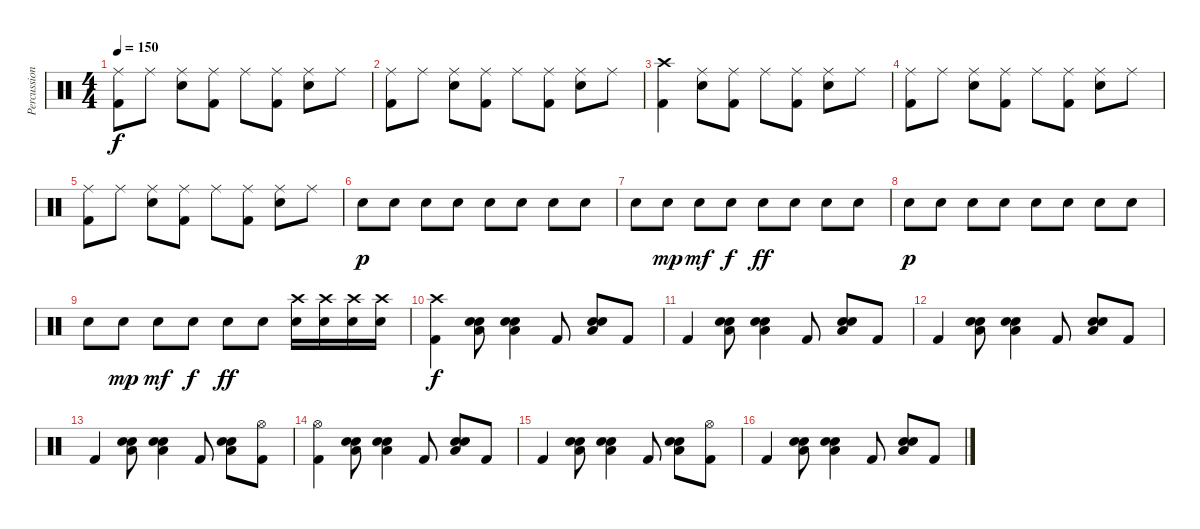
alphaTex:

\track ("Percussions" "Percussion") {instrument percussion}
\staff {score}
\articulation defaults
\ts (4 4)
\tempo 150
\clef neutral
\ks c
("Ride (middle)" "Kick (hit) 2").8{dy f} "Ride (middle)".8 ("Ride (middle)" "Snare (hit) 2").8 ("Ride (middle)" "Kick (hit) 2").8 "Ride (middle)".8 ("Ride (middle)" "Kick (hit) 2").8 ("Ride (middle)" "Snare (hit) 2").8 "Ride (middle)".8 |
("Ride (middle)" "Kick (hit) 2").8 "Ride (middle)".8 ("Ride (middle)" "Snare (hit) 2").8 ("Ride (middle)" "Kick (hit) 2").8 "Ride (middle)".8 ("Ride (middle)" "Kick (hit) 2").8 ("Ride (middle)" "Snare (hit) 2").8 "Ride (middle)".8 |
("Crash high (hit)" "Kick (hit) 2").4 ("Ride (middle)" "Snare (hit) 2").8 ("Ride (middle)" "Kick (hit) 2").8 "Ride (middle)".8 ("Ride (middle)" "Kick (hit) 2").8 ("Ride (middle)" "Snare (hit) 2").8 "Ride (middle)".8 |
("Ride (middle)" "Kick (hit) 2").8 "Ride (middle)".8 ("Ride (middle)" "Snare (hit) 2").8 ("Ride (middle)" "Kick (hit) 2").8 "Ride (middle)".8 ("Ride (middle)" "Kick (hit) 2").8 ("Ride (middle)" "Snare (hit) 2").8 "Ride (middle)".8 |
("Ride (middle)" "Kick (hit) 2").8 "Ride (middle)".8 ("Ride (middle)" "Snare (hit) 2").8 ("Ride (middle)" "Kick (hit) 2").8 "Ride (middle)".8 ("Ride (middle)" "Kick (hit) 2").8 ("Ride (middle)" "Snare (hit) 2").8 "Ride (middle)".8 |
"Snare (hit) 2".8{dy p} "Snare (hit) 2".8 "Snare (hit) 2".8 "Snare (hit) 2".8 "Snare (hit) 2".8 "Snare (hit) 2".8 "Snare (hit) 2".8 "Snare (hit) 2".8 |
"Snare (hit) 2".8 "Snare (hit) 2".8{dy mp} "Snare (hit) 2".8{dy mf} "Snare (hit) 2".8{dy f} "Snare (hit) 2".8{dy ff} "Snare (hit) 2".8 "Snare (hit) 2".8 "Snare (hit) 2".8 |
"Snare (hit) 2".8{dy p} "Snare (hit) 2".8 "Snare (hit) 2".8 "Snare (hit) 2".8 "Snare (hit) 2".8 "Snare (hit) 2".8 "Snare (hit) 2".8 "Snare (hit) 2".8 |
"Snare (hit) 2".8 "Snare (hit) 2".8{dy mp} "Snare (hit) 2".8{dy mf} "Snare (hit) 2".8{dy f} "Snare (hit) 2".8{dy ff} "Snare (hit) 2".8 ("Crash high (hit)" "Snare (hit) 2").16 ("Crash high (hit)" "Snare (hit) 2").16 ("Crash high (hit)" "Snare (hit) 2").16 ("Crash high (hit)" "Snare (hit) 2").16 |
("Crash high (hit)" "Kick (hit) 2").4{dy f} ("Hand Clap (hit)" "Snare (hit) 2" "Low Floor Tom (hit)").8 ("Hand Clap (hit)" "Snare (hit) 2" "Low Floor Tom (hit)").4 "Kick (hit) 2".8 ("Hand Clap (hit)" "Snare (hit) 2" "Low Floor Tom (hit)").8 "Kick (hit) 2".8 |
"Kick (hit) 2".4 ("Hand Clap (hit)" "Snare (hit) 2" "Low Floor Tom (hit)").8 ("Hand Clap (hit)" "Snare (hit) 2" "Low Floor Tom (hit)").4 "Kick (hit) 2".8 ("Hand Clap (hit)" "Snare (hit) 2" "Low Floor Tom (hit)").8 "Kick (hit) 2".8 |
"Kick (hit) 2".4 ("Hand Clap (hit)" "Snare (hit) 2" "Low Floor Tom (hit)").8 ("Hand Clap (hit)" "Snare (hit) 2" "Low Floor Tom (hit)").4 "Kick (hit) 2".8 ("Hand Clap (hit)" "Snare (hit) 2" "Low Floor Tom (hit)").8 "Kick (hit) 2".8 |
"Kick (hit) 2".4 ("Hand Clap (hit)" "Snare (hit) 2" "Low Floor Tom (hit)").8 ("Hand Clap (hit)" "Snare (hit) 2" "Low Floor Tom (hit)").4 "Kick (hit) 2".8 ("Hand Clap (hit)" "Snare (hit) 2" "Low Floor Tom (hit)").8 ("Hi-Hat (open)" "Kick (hit) 2").8 |
("Hi-Hat (open)" "Kick (hit) 2").4 ("Hand Clap (hit)" "Snare (hit) 2" "Low Floor Tom (hit)").8 ("Hand Clap (hit)" "Snare (hit) 2" "Low Floor Tom (hit)").4 "Kick (hit) 2".8 ("Hand Clap (hit)" "Snare (hit) 2" "Low Floor Tom (hit)").8 "Kick (hit) 2".8 |
"Kick (hit) 2".4 ("Hand Clap (hit)" "Snare (hit) 2" "Low Floor Tom (hit)").8 ("Hand Clap (hit)" "Snare (hit) 2" "Low Floor Tom (hit)").4 "Kick (hit) 2".8 ("Hand Clap (hit)" "Snare (hit) 2" "Low Floor Tom (hit)").8 ("Hi-Hat (open)" "Kick (hit) 2").8 |
"Kick (hit) 2".4 ("Hand Clap (hit)" "Snare (hit) 2" "Low Floor Tom (hit)").8 ("Hand Clap (hit)" "Snare (hit) 2" "Low Floor Tom (hit)").4 "Kick (hit) 2".8 ("Hand Clap (hit)" "Snare (hit) 2" "Low Floor Tom (hit)").8 "Kick (hit) 2".8
